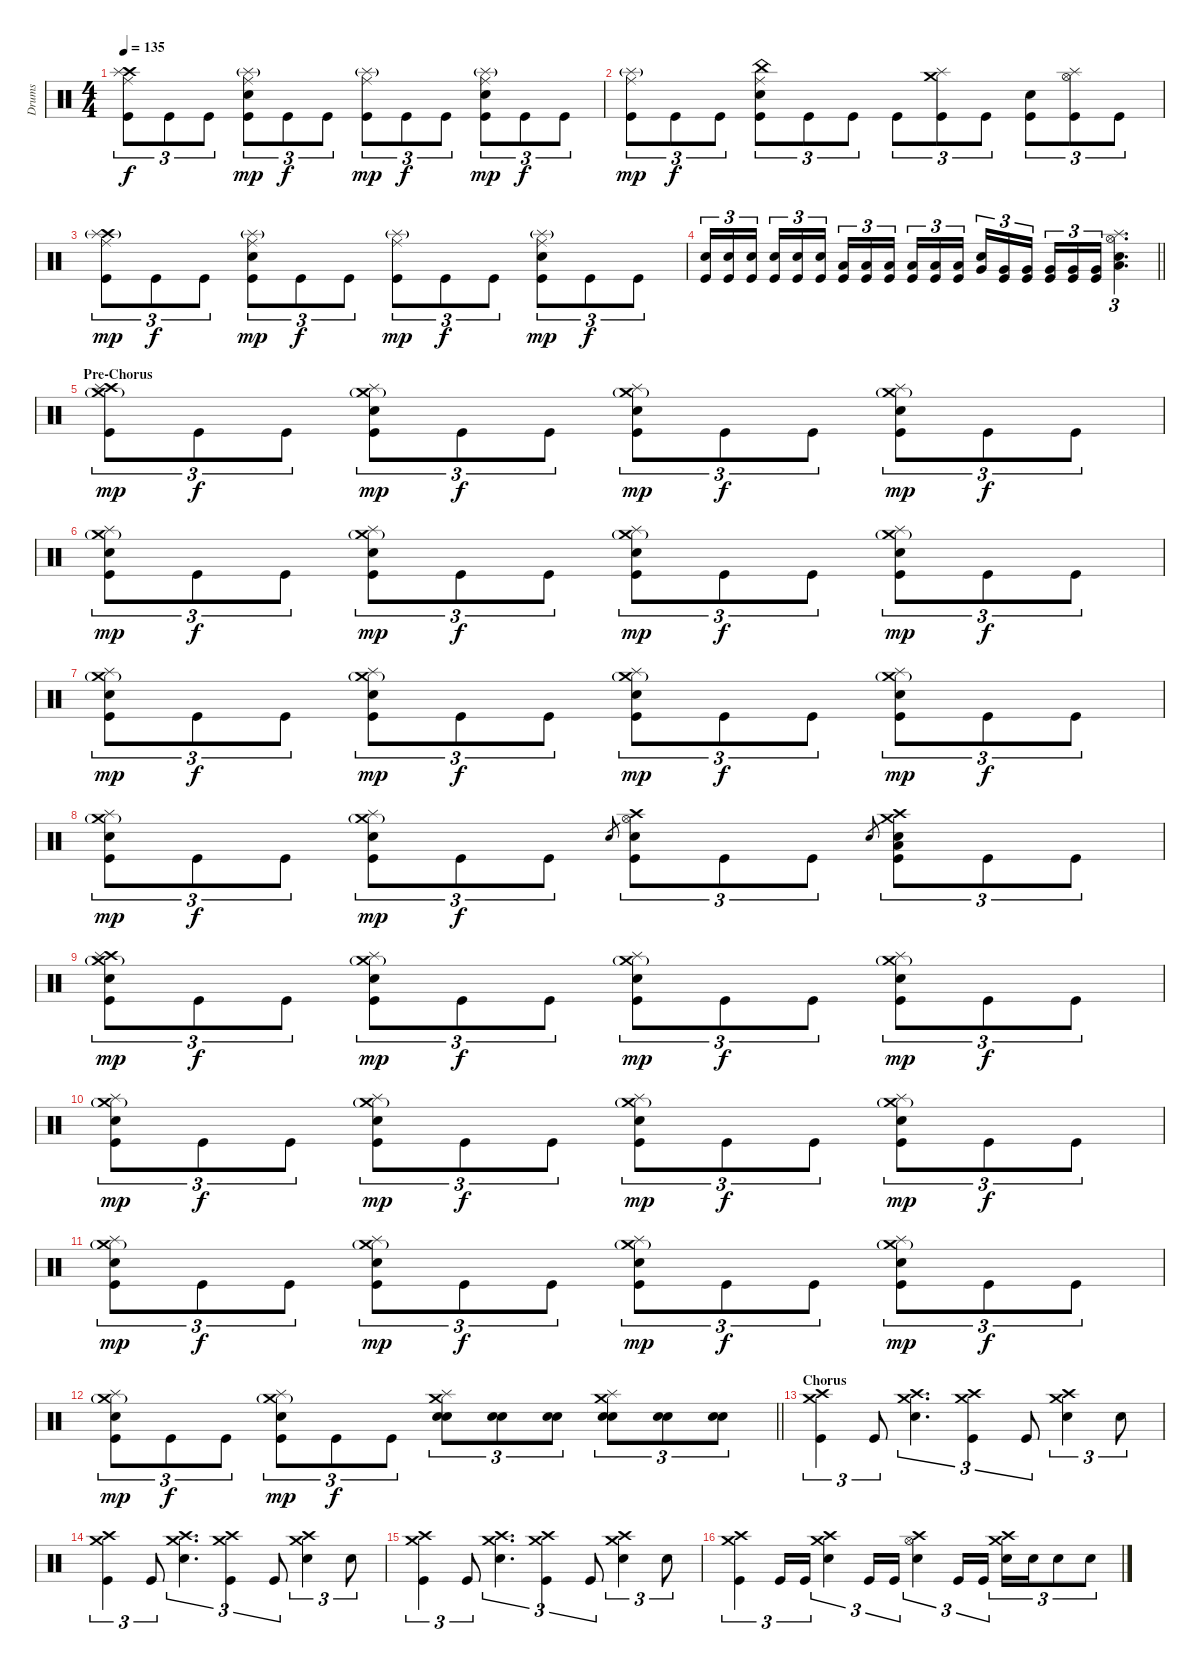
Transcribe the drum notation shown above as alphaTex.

\track ("Drums" "Drums") {instrument percussion}
\staff {score}
\articulation defaults
\ts (4 4)
\tempo 135
\clef neutral
\ks c
("Crash high (hit)" "Ride (middle)" "Splash (hit)" "Kick (hit)").8{tu (3 2) dy f} "Kick (hit)".8{tu (3 2)} "Kick (hit)".8{tu (3 2)} ("Ride (middle)" "Splash (hit)"{g} "Electric Snare (hit)" "Kick (hit)").8{tu (3 2) dy mp} "Kick (hit)".8{tu (3 2) dy f} "Kick (hit)".8{tu (3 2)} ("Ride (middle)" "Splash (hit)"{g} "Kick (hit)").8{tu (3 2) dy mp} "Kick (hit)".8{tu (3 2) dy f} "Kick (hit)".8{tu (3 2)} ("Ride (middle)" "Splash (hit)"{g} "Electric Snare (hit)" "Kick (hit)").8{tu (3 2) dy mp} "Kick (hit)".8{tu (3 2) dy f} "Kick (hit)".8{tu (3 2)} |
("Ride (middle)" "Splash (hit)"{g} "Kick (hit)").8{tu (3 2) dy mp} "Kick (hit)".8{tu (3 2) dy f} "Kick (hit)".8{tu (3 2)} ("Ride (middle)" "China (hit)" "Electric Snare (hit)" "Kick (hit)").8{tu (3 2)} "Kick (hit)".8{tu (3 2)} "Kick (hit)".8{tu (3 2)} "Kick (hit)".8{tu (3 2)} ("Crash medium (hit)" "Splash (hit)" "Kick (hit)").8{tu (3 2)} "Kick (hit)".8{tu (3 2)} ("Electric Snare (hit)" "Kick (hit)").8{tu (3 2)} ("Hi-Hat (open)" "Splash (hit)" "Kick (hit)").8{tu (3 2)} "Kick (hit)".8{tu (3 2)} |
("Crash high (hit)" "Ride (middle)" "Splash (hit)"{g} "Kick (hit)").8{tu (3 2) dy mp} "Kick (hit)".8{tu (3 2) dy f} "Kick (hit)".8{tu (3 2)} ("Ride (middle)" "Splash (hit)"{g} "Electric Snare (hit)" "Kick (hit)").8{tu (3 2) dy mp} "Kick (hit)".8{tu (3 2) dy f} "Kick (hit)".8{tu (3 2)} ("Ride (middle)" "Splash (hit)"{g} "Kick (hit)").8{tu (3 2) dy mp} "Kick (hit)".8{tu (3 2) dy f} "Kick (hit)".8{tu (3 2)} ("Ride (middle)" "Splash (hit)"{g} "Electric Snare (hit)" "Kick (hit)").8{tu (3 2) dy mp} "Kick (hit)".8{tu (3 2) dy f} "Kick (hit)".8{tu (3 2)} |
\barLineRight lightlight
("Electric Snare (hit)" "Kick (hit)").16{tu (3 2)} ("Electric Snare (hit)" "Kick (hit)").16{tu (3 2)} ("Electric Snare (hit)" "Kick (hit)").16{tu (3 2) beam splitsecondary} ("Electric Snare (hit)" "Kick (hit)").16{tu (3 2)} ("Electric Snare (hit)" "Kick (hit)").16{tu (3 2)} ("Electric Snare (hit)" "Kick (hit)").16{tu (3 2)} ("Low Tom (hit)" "Kick (hit)").16{tu (3 2)} ("Low Tom (hit)" "Kick (hit)").16{tu (3 2)} ("Low Tom (hit)" "Kick (hit)").16{tu (3 2) beam splitsecondary} ("Low Tom (hit)" "Kick (hit)").16{tu (3 2)} ("Low Tom (hit)" "Kick (hit)").16{tu (3 2)} ("Low Tom (hit)" "Kick (hit)").16{tu (3 2)} ("Very Low Tom (hit)" "Electric Snare (hit)").16{tu (3 2)} ("Very Low Tom (hit)" "Kick (hit)").16{tu (3 2)} ("Very Low Tom (hit)" "Kick (hit)").16{tu (3 2) beam splitsecondary} ("Very Low Tom (hit)" "Kick (hit)").16{tu (3 2)} ("Very Low Tom (hit)" "Kick (hit)").16{tu (3 2)} ("Very Low Tom (hit)" "Kick (hit)").16{tu (3 2)} ("Hi-Hat (open)" "Splash (hit)" "Low Floor Tom (hit)" "Electric Snare (hit)").4{d tu (3 2)} |
\section ("" "Pre-Chorus")
("Crash high (hit)" "Crash medium (hit)"{g} "Splash (hit)" "Kick (hit)").8{tu (3 2) dy mp} "Kick (hit)".8{tu (3 2) dy f} "Kick (hit)".8{tu (3 2)} ("Crash medium (hit)"{g} "Splash (hit)" "Electric Snare (hit)" "Kick (hit)").8{tu (3 2) dy mp} "Kick (hit)".8{tu (3 2) dy f} "Kick (hit)".8{tu (3 2)} ("Crash medium (hit)"{g} "Splash (hit)" "Electric Snare (hit)" "Kick (hit)").8{tu (3 2) dy mp} "Kick (hit)".8{tu (3 2) dy f} "Kick (hit)".8{tu (3 2)} ("Crash medium (hit)"{g} "Splash (hit)" "Electric Snare (hit)" "Kick (hit)").8{tu (3 2) dy mp} "Kick (hit)".8{tu (3 2) dy f} "Kick (hit)".8{tu (3 2)} |
("Crash medium (hit)"{g} "Splash (hit)" "Electric Snare (hit)" "Kick (hit)").8{tu (3 2) dy mp} "Kick (hit)".8{tu (3 2) dy f} "Kick (hit)".8{tu (3 2)} ("Crash medium (hit)"{g} "Splash (hit)" "Electric Snare (hit)" "Kick (hit)").8{tu (3 2) dy mp} "Kick (hit)".8{tu (3 2) dy f} "Kick (hit)".8{tu (3 2)} ("Crash medium (hit)"{g} "Splash (hit)" "Electric Snare (hit)" "Kick (hit)").8{tu (3 2) dy mp} "Kick (hit)".8{tu (3 2) dy f} "Kick (hit)".8{tu (3 2)} ("Crash medium (hit)"{g} "Splash (hit)" "Electric Snare (hit)" "Kick (hit)").8{tu (3 2) dy mp} "Kick (hit)".8{tu (3 2) dy f} "Kick (hit)".8{tu (3 2)} |
("Crash medium (hit)"{g} "Splash (hit)" "Electric Snare (hit)" "Kick (hit)").8{tu (3 2) dy mp} "Kick (hit)".8{tu (3 2) dy f} "Kick (hit)".8{tu (3 2)} ("Crash medium (hit)"{g} "Splash (hit)" "Electric Snare (hit)" "Kick (hit)").8{tu (3 2) dy mp} "Kick (hit)".8{tu (3 2) dy f} "Kick (hit)".8{tu (3 2)} ("Crash medium (hit)"{g} "Splash (hit)" "Electric Snare (hit)" "Kick (hit)").8{tu (3 2) dy mp} "Kick (hit)".8{tu (3 2) dy f} "Kick (hit)".8{tu (3 2)} ("Crash medium (hit)"{g} "Splash (hit)" "Electric Snare (hit)" "Kick (hit)").8{tu (3 2) dy mp} "Kick (hit)".8{tu (3 2) dy f} "Kick (hit)".8{tu (3 2)} |
("Crash medium (hit)"{g} "Splash (hit)" "Electric Snare (hit)" "Kick (hit)").8{tu (3 2) dy mp} "Kick (hit)".8{tu (3 2) dy f} "Kick (hit)".8{tu (3 2)} ("Crash medium (hit)"{g} "Splash (hit)" "Electric Snare (hit)" "Kick (hit)").8{tu (3 2) dy mp} "Kick (hit)".8{tu (3 2) dy f} "Kick (hit)".8{tu (3 2)} "Electric Snare (hit)".8{gr} ("Hi-Hat (open)" "Crash high (hit)" "Electric Snare (hit)" "Kick (hit)").8{tu (3 2)} "Kick (hit)".8{tu (3 2)} "Kick (hit)".8{tu (3 2)} "Electric Snare (hit)".8{gr} ("Crash high (hit)" "Crash medium (hit)" "Low Floor Tom (hit)" "Electric Snare (hit)" "Kick (hit)").8{tu (3 2)} "Kick (hit)".8{tu (3 2)} "Kick (hit)".8{tu (3 2)} |
("Crash high (hit)" "Crash medium (hit)"{g} "Splash (hit)" "Electric Snare (hit)" "Kick (hit)").8{tu (3 2) dy mp} "Kick (hit)".8{tu (3 2) dy f} "Kick (hit)".8{tu (3 2)} ("Crash medium (hit)"{g} "Splash (hit)" "Electric Snare (hit)" "Kick (hit)").8{tu (3 2) dy mp} "Kick (hit)".8{tu (3 2) dy f} "Kick (hit)".8{tu (3 2)} ("Crash medium (hit)"{g} "Splash (hit)" "Electric Snare (hit)" "Kick (hit)").8{tu (3 2) dy mp} "Kick (hit)".8{tu (3 2) dy f} "Kick (hit)".8{tu (3 2)} ("Crash medium (hit)"{g} "Splash (hit)" "Electric Snare (hit)" "Kick (hit)").8{tu (3 2) dy mp} "Kick (hit)".8{tu (3 2) dy f} "Kick (hit)".8{tu (3 2)} |
("Crash medium (hit)"{g} "Splash (hit)" "Electric Snare (hit)" "Kick (hit)").8{tu (3 2) dy mp} "Kick (hit)".8{tu (3 2) dy f} "Kick (hit)".8{tu (3 2)} ("Crash medium (hit)"{g} "Splash (hit)" "Electric Snare (hit)" "Kick (hit)").8{tu (3 2) dy mp} "Kick (hit)".8{tu (3 2) dy f} "Kick (hit)".8{tu (3 2)} ("Crash medium (hit)"{g} "Splash (hit)" "Electric Snare (hit)" "Kick (hit)").8{tu (3 2) dy mp} "Kick (hit)".8{tu (3 2) dy f} "Kick (hit)".8{tu (3 2)} ("Crash medium (hit)"{g} "Splash (hit)" "Electric Snare (hit)" "Kick (hit)").8{tu (3 2) dy mp} "Kick (hit)".8{tu (3 2) dy f} "Kick (hit)".8{tu (3 2)} |
("Crash medium (hit)"{g} "Splash (hit)" "Electric Snare (hit)" "Kick (hit)").8{tu (3 2) dy mp} "Kick (hit)".8{tu (3 2) dy f} "Kick (hit)".8{tu (3 2)} ("Crash medium (hit)"{g} "Splash (hit)" "Electric Snare (hit)" "Kick (hit)").8{tu (3 2) dy mp} "Kick (hit)".8{tu (3 2) dy f} "Kick (hit)".8{tu (3 2)} ("Crash medium (hit)"{g} "Splash (hit)" "Electric Snare (hit)" "Kick (hit)").8{tu (3 2) dy mp} "Kick (hit)".8{tu (3 2) dy f} "Kick (hit)".8{tu (3 2)} ("Crash medium (hit)"{g} "Splash (hit)" "Electric Snare (hit)" "Kick (hit)").8{tu (3 2) dy mp} "Kick (hit)".8{tu (3 2) dy f} "Kick (hit)".8{tu (3 2)} |
\barLineRight lightlight
("Crash medium (hit)"{g} "Splash (hit)" "Electric Snare (hit)" "Kick (hit)").8{tu (3 2) dy mp} "Kick (hit)".8{tu (3 2) dy f} "Kick (hit)".8{tu (3 2)} ("Crash medium (hit)"{g} "Splash (hit)" "Electric Snare (hit)" "Kick (hit)").8{tu (3 2) dy mp} "Kick (hit)".8{tu (3 2) dy f} "Kick (hit)".8{tu (3 2)} ("Crash medium (hit)" "Splash (hit)" "Snare (hit) 2" "Electric Snare (hit)").8{tu (3 2)} ("Snare (hit) 2" "Electric Snare (hit)").8{tu (3 2)} ("Snare (hit) 2" "Electric Snare (hit)").8{tu (3 2)} ("Crash medium (hit)" "Splash (hit)" "Snare (hit) 2" "Electric Snare (hit)").8{tu (3 2)} ("Snare (hit) 2" "Electric Snare (hit)").8{tu (3 2)} ("Snare (hit) 2" "Electric Snare (hit)").8{tu (3 2)} |
\section ("" "Chorus")
("Crash medium (hit)" "Crash high (hit)" "Kick (hit)").4{tu (3 2)} "Kick (hit)".8{tu (3 2)} ("Crash medium (hit)" "Crash high (hit)" "Electric Snare (hit)").4{d tu (3 2)} ("Crash medium (hit)" "Crash high (hit)" "Kick (hit)").4{tu (3 2)} "Kick (hit)".8{tu (3 2)} ("Crash medium (hit)" "Crash high (hit)" "Electric Snare (hit)").4{tu (3 2)} "Electric Snare (hit)".8{tu (3 2)} |
("Crash medium (hit)" "Crash high (hit)" "Kick (hit)").4{tu (3 2)} "Kick (hit)".8{tu (3 2)} ("Crash medium (hit)" "Crash high (hit)" "Electric Snare (hit)").4{d tu (3 2)} ("Crash medium (hit)" "Crash high (hit)" "Kick (hit)").4{tu (3 2)} "Kick (hit)".8{tu (3 2)} ("Crash medium (hit)" "Crash high (hit)" "Electric Snare (hit)").4{tu (3 2)} "Electric Snare (hit)".8{tu (3 2)} |
("Crash medium (hit)" "Crash high (hit)" "Kick (hit)").4{tu (3 2)} "Kick (hit)".8{tu (3 2)} ("Crash medium (hit)" "Crash high (hit)" "Electric Snare (hit)").4{d tu (3 2)} ("Crash medium (hit)" "Crash high (hit)" "Kick (hit)").4{tu (3 2)} "Kick (hit)".8{tu (3 2)} ("Crash medium (hit)" "Crash high (hit)" "Electric Snare (hit)").4{tu (3 2)} "Electric Snare (hit)".8{tu (3 2)} |
("Crash medium (hit)" "Crash high (hit)" "Kick (hit)").4{tu (3 2)} "Kick (hit)".16{tu (3 2)} "Kick (hit)".16{tu (3 2)} ("Crash medium (hit)" "Crash high (hit)" "Electric Snare (hit)").4{tu (3 2)} "Kick (hit)".16{tu (3 2)} "Kick (hit)".16{tu (3 2)} ("Hi-Hat (open)" "Crash high (hit)" "Electric Snare (hit)").4{tu (3 2)} "Kick (hit)".16{tu (3 2)} "Kick (hit)".16{tu (3 2)} ("Crash medium (hit)" "Crash high (hit)" "Electric Snare (hit)").16{tu (3 2)} "Electric Snare (hit)".16{tu (3 2)} "Electric Snare (hit)".8{tu (3 2)} "Electric Snare (hit)".8{tu (3 2)}
